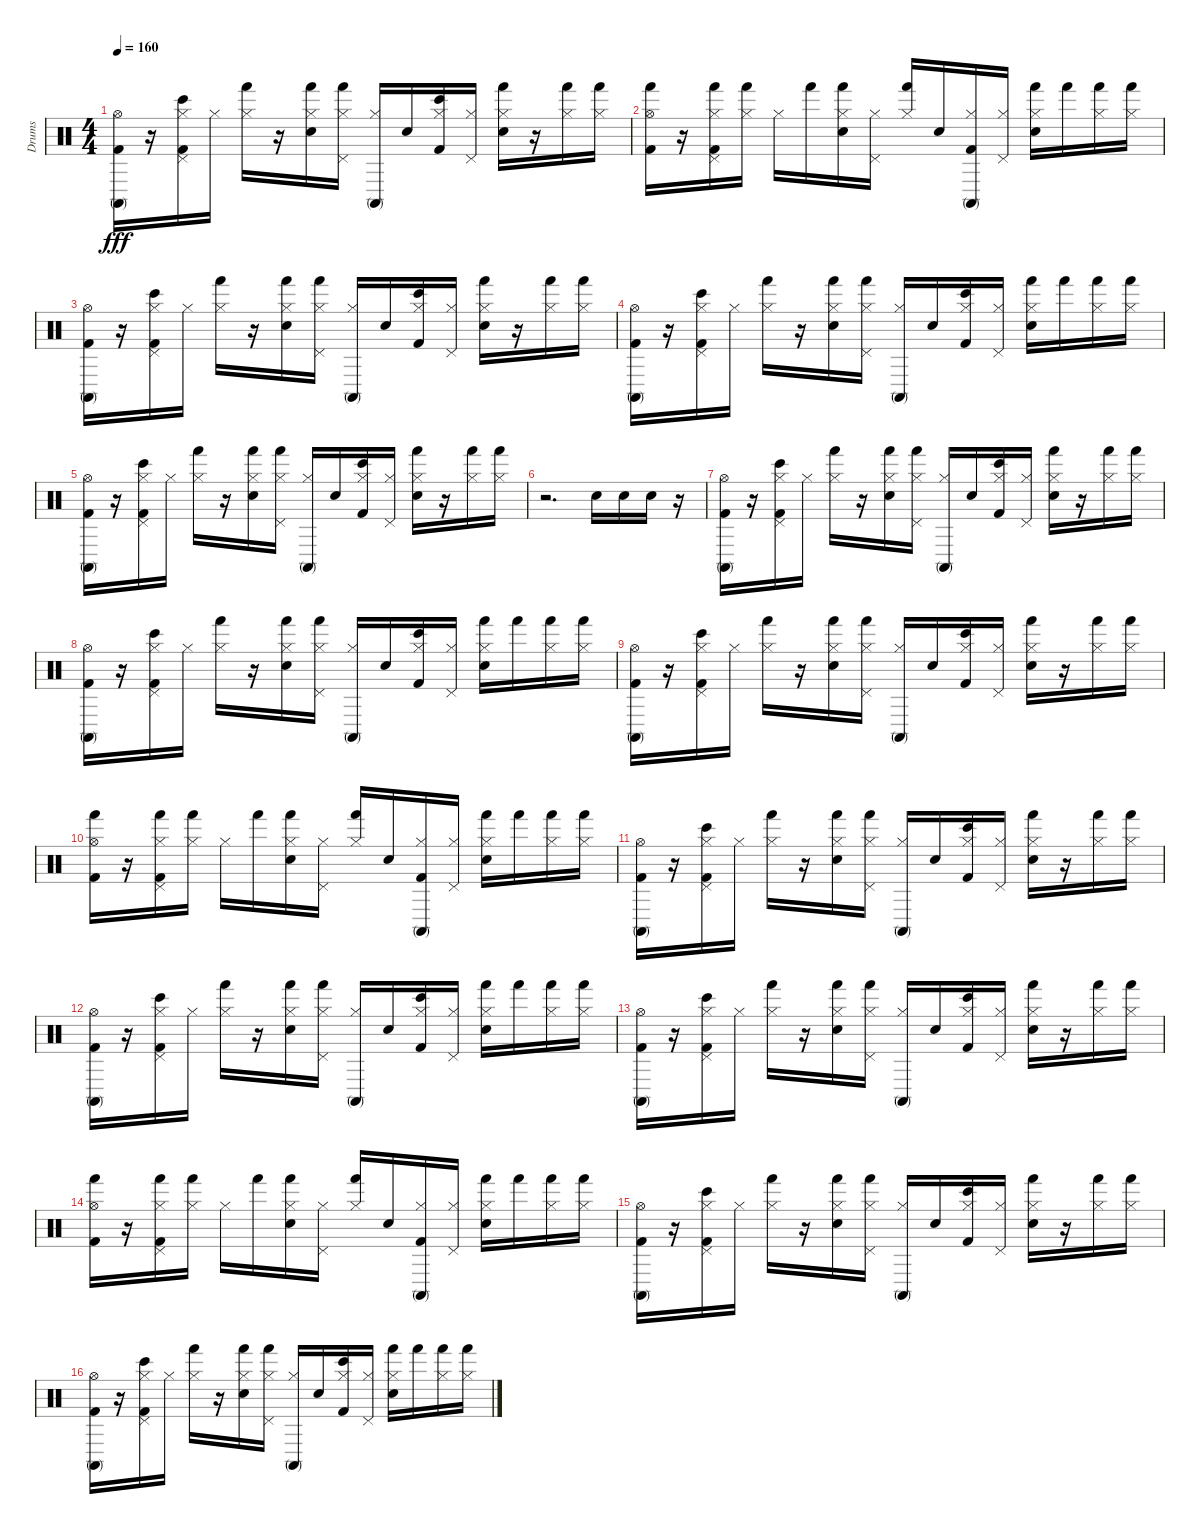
\track ("Drums" "Drums") {instrument percussion}
\staff {score}
\articulation defaults
\ts (4 4)
\tempo 160
\clef neutral
\ks c
("Hi-Hat (open)" "Conga high (mute)" "Kick (hit) 2").16{dy fff} r.16 ("Bongo High (hit)" "Pedal Hi-Hat (hit)" "Kick (hit) 2" "Hi-Hat (closed)").16 "Hi-Hat (closed)".16 ("Hand (hit)" "Hi-Hat (closed)").16 r.16 ("Hand (hit)" "Electric Snare (hit)" "Hi-Hat (closed)").16 ("Pedal Hi-Hat (hit)" "Hand (hit)" "Hi-Hat (closed)").16 ("Hi-Hat (closed)" "Conga high (mute)").16 "Electric Snare (hit)".16 ("Hi-Hat (closed)" "Bongo High (hit)" "Kick (hit) 2").16 ("Hi-Hat (closed)" "Pedal Hi-Hat (hit)").16 ("Electric Snare (hit)" "Hi-Hat (closed)" "Hand (hit)").16 r.16 ("Hand (hit)" "Hi-Hat (closed)").16 ("Hand (hit)" "Hi-Hat (closed)").16 |
("Kick (hit) 2" "Hi-Hat (open)" "Hand (hit)").16 r.16 ("Kick (hit) 2" "Pedal Hi-Hat (hit)" "Hand (hit)" "Hi-Hat (closed)").16 ("Hi-Hat (closed)" "Hand (hit)").16 "Hi-Hat (closed)".16 "Hand (hit)".16 ("Hand (hit)" "Hi-Hat (closed)" "Electric Snare (hit)").16 ("Hi-Hat (closed)" "Pedal Hi-Hat (hit)").16 ("Hi-Hat (closed)" "Hand (hit)").16 "Electric Snare (hit)".16 ("Kick (hit) 2" "Conga high (mute)" "Hi-Hat (closed)").16 ("Hi-Hat (closed)" "Pedal Hi-Hat (hit)").16 ("Hand (hit)" "Hi-Hat (closed)" "Electric Snare (hit)").16 "Hand (hit)".16 ("Hi-Hat (closed)" "Hand (hit)").16 ("Hand (hit)" "Hi-Hat (closed)").16 |
("Hi-Hat (open)" "Kick (hit) 2" "Conga high (mute)").16 r.16 ("Bongo High (hit)" "Pedal Hi-Hat (hit)" "Hi-Hat (closed)" "Kick (hit) 2").16 "Hi-Hat (closed)".16 ("Hand (hit)" "Hi-Hat (closed)").16 r.16 ("Hand (hit)" "Electric Snare (hit)" "Hi-Hat (closed)").16 ("Hand (hit)" "Hi-Hat (closed)" "Pedal Hi-Hat (hit)").16 ("Conga high (mute)" "Hi-Hat (closed)").16 "Electric Snare (hit)".16 ("Bongo High (hit)" "Hi-Hat (closed)" "Kick (hit) 2").16 ("Hi-Hat (closed)" "Pedal Hi-Hat (hit)").16 ("Hand (hit)" "Electric Snare (hit)" "Hi-Hat (closed)").16 r.16 ("Hand (hit)" "Hi-Hat (closed)").16 ("Hi-Hat (closed)" "Hand (hit)").16 |
("Kick (hit) 2" "Conga high (mute)" "Hi-Hat (open)").16 r.16 ("Pedal Hi-Hat (hit)" "Bongo High (hit)" "Hi-Hat (closed)" "Kick (hit) 2").16 "Hi-Hat (closed)".16 ("Hand (hit)" "Hi-Hat (closed)").16 r.16 ("Electric Snare (hit)" "Hi-Hat (closed)" "Hand (hit)").16 ("Pedal Hi-Hat (hit)" "Hi-Hat (closed)" "Hand (hit)").16 ("Conga high (mute)" "Hi-Hat (closed)").16 "Electric Snare (hit)".16 ("Kick (hit) 2" "Hi-Hat (closed)" "Bongo High (hit)").16 ("Hi-Hat (closed)" "Pedal Hi-Hat (hit)").16 ("Hand (hit)" "Electric Snare (hit)" "Hi-Hat (closed)").16 "Hand (hit)".16 ("Hand (hit)" "Hi-Hat (closed)").16 ("Hi-Hat (closed)" "Hand (hit)").16 |
("Hi-Hat (open)" "Conga high (mute)" "Kick (hit) 2").16 r.16 ("Hi-Hat (closed)" "Kick (hit) 2" "Bongo High (hit)" "Pedal Hi-Hat (hit)").16 "Hi-Hat (closed)".16 ("Hi-Hat (closed)" "Hand (hit)").16 r.16 ("Electric Snare (hit)" "Hand (hit)" "Hi-Hat (closed)").16 ("Hi-Hat (closed)" "Pedal Hi-Hat (hit)" "Hand (hit)").16 ("Hi-Hat (closed)" "Conga high (mute)").16 "Electric Snare (hit)".16 ("Kick (hit) 2" "Bongo High (hit)" "Hi-Hat (closed)").16 ("Hi-Hat (closed)" "Pedal Hi-Hat (hit)").16 ("Hand (hit)" "Electric Snare (hit)" "Hi-Hat (closed)").16 r.16 ("Hand (hit)" "Hi-Hat (closed)").16 ("Hi-Hat (closed)" "Hand (hit)").16 |
r.2{d} "Snare (hit) 2".16 "Snare (hit) 2".16 "Snare (hit) 2".16 r.16 |
("Hi-Hat (open)" "Conga high (mute)" "Kick (hit) 2").16 r.16 ("Kick (hit) 2" "Hi-Hat (closed)" "Bongo High (hit)" "Pedal Hi-Hat (hit)").16 "Hi-Hat (closed)".16 ("Hi-Hat (closed)" "Hand (hit)").16 r.16 ("Hand (hit)" "Electric Snare (hit)" "Hi-Hat (closed)").16 ("Hand (hit)" "Hi-Hat (closed)" "Pedal Hi-Hat (hit)").16 ("Conga high (mute)" "Hi-Hat (closed)").16 "Electric Snare (hit)".16 ("Bongo High (hit)" "Kick (hit) 2" "Hi-Hat (closed)").16 ("Pedal Hi-Hat (hit)" "Hi-Hat (closed)").16 ("Hand (hit)" "Hi-Hat (closed)" "Electric Snare (hit)").16 r.16 ("Hand (hit)" "Hi-Hat (closed)").16 ("Hand (hit)" "Hi-Hat (closed)").16 |
("Hi-Hat (open)" "Conga high (mute)" "Kick (hit) 2").16 r.16 ("Hi-Hat (closed)" "Pedal Hi-Hat (hit)" "Bongo High (hit)" "Kick (hit) 2").16 "Hi-Hat (closed)".16 ("Hand (hit)" "Hi-Hat (closed)").16 r.16 ("Hand (hit)" "Electric Snare (hit)" "Hi-Hat (closed)").16 ("Pedal Hi-Hat (hit)" "Hand (hit)" "Hi-Hat (closed)").16 ("Hi-Hat (closed)" "Conga high (mute)").16 "Electric Snare (hit)".16 ("Bongo High (hit)" "Kick (hit) 2" "Hi-Hat (closed)").16 ("Pedal Hi-Hat (hit)" "Hi-Hat (closed)").16 ("Hi-Hat (closed)" "Electric Snare (hit)" "Hand (hit)").16 "Hand (hit)".16 ("Hand (hit)" "Hi-Hat (closed)").16 ("Hand (hit)" "Hi-Hat (closed)").16 |
("Kick (hit) 2" "Conga high (mute)" "Hi-Hat (open)").16 r.16 ("Kick (hit) 2" "Hi-Hat (closed)" "Pedal Hi-Hat (hit)" "Bongo High (hit)").16 "Hi-Hat (closed)".16 ("Hand (hit)" "Hi-Hat (closed)").16 r.16 ("Electric Snare (hit)" "Hi-Hat (closed)" "Hand (hit)").16 ("Pedal Hi-Hat (hit)" "Hi-Hat (closed)" "Hand (hit)").16 ("Conga high (mute)" "Hi-Hat (closed)").16 "Electric Snare (hit)".16 ("Hi-Hat (closed)" "Kick (hit) 2" "Bongo High (hit)").16 ("Hi-Hat (closed)" "Pedal Hi-Hat (hit)").16 ("Hi-Hat (closed)" "Electric Snare (hit)" "Hand (hit)").16 r.16 ("Hand (hit)" "Hi-Hat (closed)").16 ("Hi-Hat (closed)" "Hand (hit)").16 |
("Kick (hit) 2" "Hi-Hat (open)" "Hand (hit)").16 r.16 ("Pedal Hi-Hat (hit)" "Hand (hit)" "Hi-Hat (closed)" "Kick (hit) 2").16 ("Hi-Hat (closed)" "Hand (hit)").16 "Hi-Hat (closed)".16 "Hand (hit)".16 ("Hi-Hat (closed)" "Hand (hit)" "Electric Snare (hit)").16 ("Pedal Hi-Hat (hit)" "Hi-Hat (closed)").16 ("Hi-Hat (closed)" "Hand (hit)").16 "Electric Snare (hit)".16 ("Kick (hit) 2" "Hi-Hat (closed)" "Conga high (mute)").16 ("Hi-Hat (closed)" "Pedal Hi-Hat (hit)").16 ("Electric Snare (hit)" "Hi-Hat (closed)" "Hand (hit)").16 "Hand (hit)".16 ("Hi-Hat (closed)" "Hand (hit)").16 ("Hand (hit)" "Hi-Hat (closed)").16 |
("Conga high (mute)" "Kick (hit) 2" "Hi-Hat (open)").16 r.16 ("Kick (hit) 2" "Bongo High (hit)" "Hi-Hat (closed)" "Pedal Hi-Hat (hit)").16 "Hi-Hat (closed)".16 ("Hi-Hat (closed)" "Hand (hit)").16 r.16 ("Hand (hit)" "Hi-Hat (closed)" "Electric Snare (hit)").16 ("Pedal Hi-Hat (hit)" "Hand (hit)" "Hi-Hat (closed)").16 ("Conga high (mute)" "Hi-Hat (closed)").16 "Electric Snare (hit)".16 ("Bongo High (hit)" "Kick (hit) 2" "Hi-Hat (closed)").16 ("Hi-Hat (closed)" "Pedal Hi-Hat (hit)").16 ("Hi-Hat (closed)" "Hand (hit)" "Electric Snare (hit)").16 r.16 ("Hand (hit)" "Hi-Hat (closed)").16 ("Hand (hit)" "Hi-Hat (closed)").16 |
("Hi-Hat (open)" "Conga high (mute)" "Kick (hit) 2").16 r.16 ("Pedal Hi-Hat (hit)" "Bongo High (hit)" "Kick (hit) 2" "Hi-Hat (closed)").16 "Hi-Hat (closed)".16 ("Hand (hit)" "Hi-Hat (closed)").16 r.16 ("Electric Snare (hit)" "Hi-Hat (closed)" "Hand (hit)").16 ("Hi-Hat (closed)" "Hand (hit)" "Pedal Hi-Hat (hit)").16 ("Conga high (mute)" "Hi-Hat (closed)").16 "Electric Snare (hit)".16 ("Kick (hit) 2" "Hi-Hat (closed)" "Bongo High (hit)").16 ("Pedal Hi-Hat (hit)" "Hi-Hat (closed)").16 ("Electric Snare (hit)" "Hi-Hat (closed)" "Hand (hit)").16 "Hand (hit)".16 ("Hi-Hat (closed)" "Hand (hit)").16 ("Hand (hit)" "Hi-Hat (closed)").16 |
("Conga high (mute)" "Kick (hit) 2" "Hi-Hat (open)").16 r.16 ("Hi-Hat (closed)" "Pedal Hi-Hat (hit)" "Bongo High (hit)" "Kick (hit) 2").16 "Hi-Hat (closed)".16 ("Hi-Hat (closed)" "Hand (hit)").16 r.16 ("Hi-Hat (closed)" "Hand (hit)" "Electric Snare (hit)").16 ("Pedal Hi-Hat (hit)" "Hi-Hat (closed)" "Hand (hit)").16 ("Hi-Hat (closed)" "Conga high (mute)").16 "Electric Snare (hit)".16 ("Bongo High (hit)" "Hi-Hat (closed)" "Kick (hit) 2").16 ("Pedal Hi-Hat (hit)" "Hi-Hat (closed)").16 ("Electric Snare (hit)" "Hi-Hat (closed)" "Hand (hit)").16 r.16 ("Hand (hit)" "Hi-Hat (closed)").16 ("Hand (hit)" "Hi-Hat (closed)").16 |
("Kick (hit) 2" "Hand (hit)" "Hi-Hat (open)").16 r.16 ("Hand (hit)" "Kick (hit) 2" "Hi-Hat (closed)" "Pedal Hi-Hat (hit)").16 ("Hand (hit)" "Hi-Hat (closed)").16 "Hi-Hat (closed)".16 "Hand (hit)".16 ("Hand (hit)" "Electric Snare (hit)" "Hi-Hat (closed)").16 ("Hi-Hat (closed)" "Pedal Hi-Hat (hit)").16 ("Hi-Hat (closed)" "Hand (hit)").16 "Electric Snare (hit)".16 ("Kick (hit) 2" "Hi-Hat (closed)" "Conga high (mute)").16 ("Hi-Hat (closed)" "Pedal Hi-Hat (hit)").16 ("Hand (hit)" "Electric Snare (hit)" "Hi-Hat (closed)").16 "Hand (hit)".16 ("Hi-Hat (closed)" "Hand (hit)").16 ("Hand (hit)" "Hi-Hat (closed)").16 |
("Kick (hit) 2" "Conga high (mute)" "Hi-Hat (open)").16 r.16 ("Kick (hit) 2" "Bongo High (hit)" "Pedal Hi-Hat (hit)" "Hi-Hat (closed)").16 "Hi-Hat (closed)".16 ("Hi-Hat (closed)" "Hand (hit)").16 r.16 ("Hi-Hat (closed)" "Hand (hit)" "Electric Snare (hit)").16 ("Hi-Hat (closed)" "Pedal Hi-Hat (hit)" "Hand (hit)").16 ("Hi-Hat (closed)" "Conga high (mute)").16 "Electric Snare (hit)".16 ("Bongo High (hit)" "Kick (hit) 2" "Hi-Hat (closed)").16 ("Hi-Hat (closed)" "Pedal Hi-Hat (hit)").16 ("Electric Snare (hit)" "Hi-Hat (closed)" "Hand (hit)").16 r.16 ("Hi-Hat (closed)" "Hand (hit)").16 ("Hi-Hat (closed)" "Hand (hit)").16 |
("Hi-Hat (open)" "Kick (hit) 2" "Conga high (mute)").16 r.16 ("Bongo High (hit)" "Hi-Hat (closed)" "Pedal Hi-Hat (hit)" "Kick (hit) 2").16 "Hi-Hat (closed)".16 ("Hand (hit)" "Hi-Hat (closed)").16 r.16 ("Electric Snare (hit)" "Hand (hit)" "Hi-Hat (closed)").16 ("Hi-Hat (closed)" "Pedal Hi-Hat (hit)" "Hand (hit)").16 ("Hi-Hat (closed)" "Conga high (mute)").16 "Electric Snare (hit)".16 ("Bongo High (hit)" "Hi-Hat (closed)" "Kick (hit) 2").16 ("Hi-Hat (closed)" "Pedal Hi-Hat (hit)").16 ("Hi-Hat (closed)" "Electric Snare (hit)" "Hand (hit)").16 "Hand (hit)".16 ("Hand (hit)" "Hi-Hat (closed)").16 ("Hi-Hat (closed)" "Hand (hit)").16
